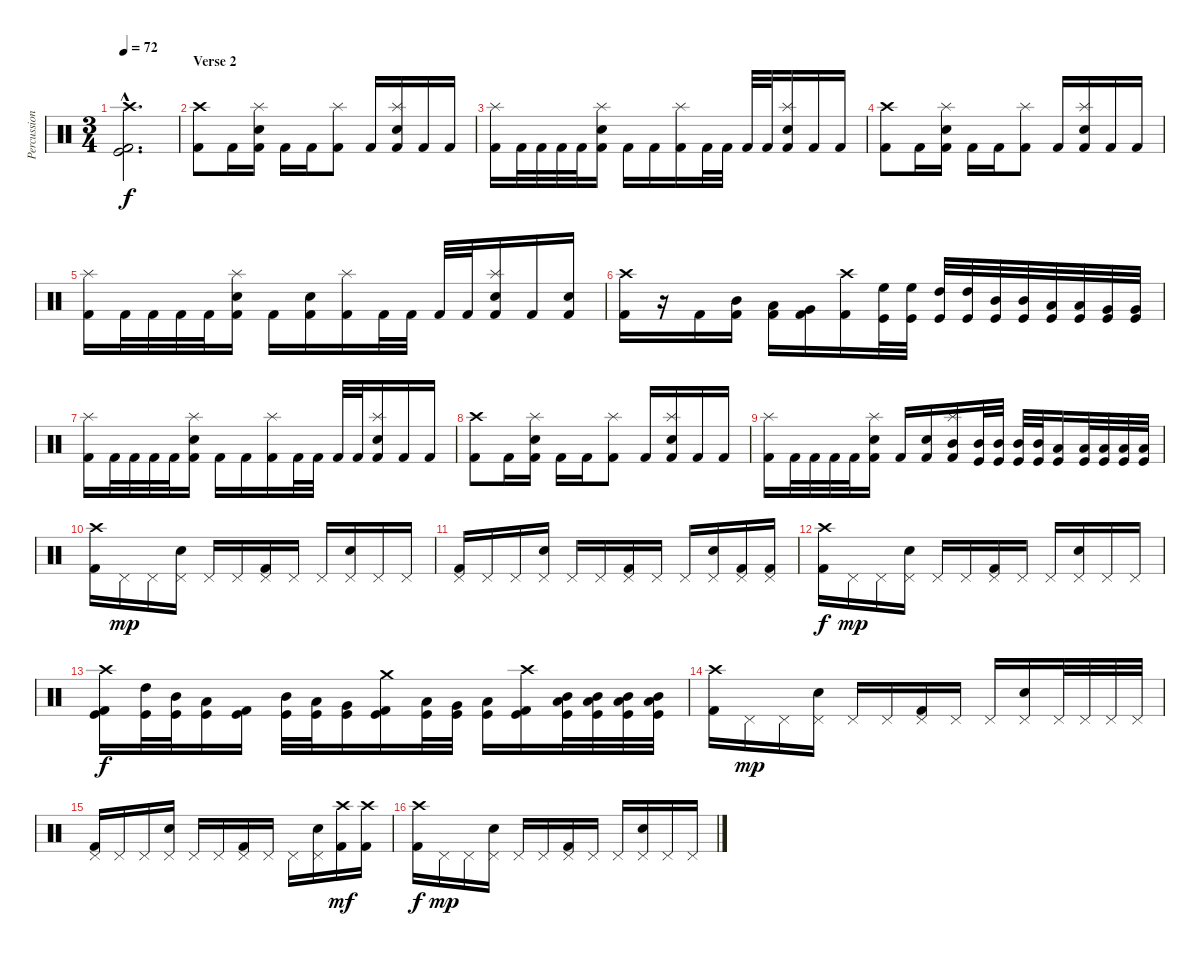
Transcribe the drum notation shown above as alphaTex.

\track ("Percussion" "Percussion") {instrument percussion}
\staff {score}
\articulation defaults
\ts (3 4)
\tempo 72
\clef neutral
\ks c
("Crash high (hit)"{hac} "Kick (hit) 2"{hac} "Kick (hit)"{hac}).2{d dy f} |
\section ("" "Verse 2")
("Crash high (hit)" "Kick (hit) 2").8 "Kick (hit) 2".16 ("Splash (hit)" "Electric Snare (hit)" "Kick (hit) 2").16 "Kick (hit) 2".16 "Kick (hit) 2".16 ("Splash (hit)" "Kick (hit) 2").8 "Kick (hit) 2".16 ("Splash (hit)" "Electric Snare (hit)" "Kick (hit) 2").16 "Kick (hit) 2".16 "Kick (hit) 2".16 |
("Splash (hit)" "Kick (hit) 2").16 "Kick (hit) 2".32 "Kick (hit) 2".32 "Kick (hit) 2".32 "Kick (hit) 2".32 ("Splash (hit)" "Electric Snare (hit)" "Kick (hit) 2").16 "Kick (hit) 2".16 "Kick (hit) 2".16 ("Splash (hit)" "Kick (hit) 2").16 "Kick (hit) 2".32 "Kick (hit) 2".32 "Kick (hit) 2".32 "Kick (hit) 2".32 ("Splash (hit)" "Electric Snare (hit)" "Kick (hit) 2").16 "Kick (hit) 2".16 "Kick (hit) 2".16 |
("Crash high (hit)" "Kick (hit) 2").8 "Kick (hit) 2".16 ("Splash (hit)" "Electric Snare (hit)" "Kick (hit) 2").16 "Kick (hit) 2".16 "Kick (hit) 2".16 ("Splash (hit)" "Kick (hit) 2").8 "Kick (hit) 2".16 ("Splash (hit)" "Electric Snare (hit)" "Kick (hit) 2").16 "Kick (hit) 2".16 "Kick (hit) 2".16 |
("Splash (hit)" "Kick (hit) 2").16 "Kick (hit) 2".32 "Kick (hit) 2".32 "Kick (hit) 2".32 "Kick (hit) 2".32 ("Splash (hit)" "Electric Snare (hit)" "Kick (hit) 2").16 "Kick (hit) 2".16 ("Electric Snare (hit)" "Kick (hit) 2").16 ("Splash (hit)" "Kick (hit) 2").16 "Kick (hit) 2".32 "Kick (hit) 2".32 "Kick (hit) 2".32 "Kick (hit) 2".32 ("Splash (hit)" "Electric Snare (hit)" "Kick (hit) 2").16 "Kick (hit) 2".16 ("Electric Snare (hit)" "Kick (hit) 2").16 |
("Crash high (hit)" "Kick (hit) 2").16 r.16 "Kick (hit) 2".16 ("Mid Tom (hit)" "Kick (hit) 2").16 ("Low Tom (hit)" "Kick (hit) 2").16 ("Very Low Tom (hit)" "Kick (hit) 2").16 ("Crash high (hit)" "Kick (hit) 2").16 ("High Floor Tom (hit)" "Kick (hit)").32 ("High Floor Tom (hit)" "Kick (hit)").32 ("High Tom (hit)" "Kick (hit)").32 ("High Tom (hit)" "Kick (hit)").32 ("Mid Tom (hit)" "Kick (hit)").32 ("Mid Tom (hit)" "Kick (hit)").32 ("Low Tom (hit)" "Kick (hit)").32 ("Low Tom (hit)" "Kick (hit)").32 ("Very Low Tom (hit)" "Kick (hit)").32 ("Very Low Tom (hit)" "Kick (hit)").32 |
("Splash (hit)" "Kick (hit) 2").16 "Kick (hit) 2".32 "Kick (hit) 2".32 "Kick (hit) 2".32 "Kick (hit) 2".32 ("Splash (hit)" "Electric Snare (hit)" "Kick (hit) 2").16 "Kick (hit) 2".16 "Kick (hit) 2".16 ("Splash (hit)" "Kick (hit) 2").16 "Kick (hit) 2".32 "Kick (hit) 2".32 "Kick (hit) 2".32 "Kick (hit) 2".32 ("Splash (hit)" "Electric Snare (hit)" "Kick (hit) 2").16 "Kick (hit) 2".16 "Kick (hit) 2".16 |
("Crash high (hit)" "Kick (hit) 2").8 "Kick (hit) 2".16 ("Splash (hit)" "Electric Snare (hit)" "Kick (hit) 2").16 "Kick (hit) 2".16 "Kick (hit) 2".16 ("Splash (hit)" "Kick (hit) 2").8 "Kick (hit) 2".16 ("Splash (hit)" "Electric Snare (hit)" "Kick (hit) 2").16 "Kick (hit) 2".16 "Kick (hit) 2".16 |
("Splash (hit)" "Kick (hit) 2").16 "Kick (hit) 2".32 "Kick (hit) 2".32 "Kick (hit) 2".32 "Kick (hit) 2".32 ("Splash (hit)" "Electric Snare (hit)" "Kick (hit) 2").16 "Kick (hit) 2".16 ("Electric Snare (hit)" "Kick (hit) 2").16 ("Splash (hit)" "Mid Tom (hit)" "Kick (hit) 2").16 ("Mid Tom (hit)" "Kick (hit)").32 ("Mid Tom (hit)" "Kick (hit)").32 ("Mid Tom (hit)" "Kick (hit)").32 ("Mid Tom (hit)" "Kick (hit)").32 ("Low Tom (hit)" "Kick (hit)").16 ("Low Tom (hit)" "Kick (hit)").32 ("Low Tom (hit)" "Kick (hit)").32 ("Low Tom (hit)" "Kick (hit)").32 ("Low Tom (hit)" "Kick (hit)").32 |
("Crash high (hit)" "Kick (hit) 2").16 "Pedal Hi-Hat (hit)".16{dy mp} "Pedal Hi-Hat (hit)".16 ("Pedal Hi-Hat (hit)" "Electric Snare (hit)").16 "Pedal Hi-Hat (hit)".16 "Pedal Hi-Hat (hit)".16 ("Pedal Hi-Hat (hit)" "Kick (hit) 2").16 "Pedal Hi-Hat (hit)".16 "Pedal Hi-Hat (hit)".16 ("Pedal Hi-Hat (hit)" "Electric Snare (hit)").16 "Pedal Hi-Hat (hit)".16 "Pedal Hi-Hat (hit)".16 |
("Pedal Hi-Hat (hit)" "Kick (hit) 2").16 "Pedal Hi-Hat (hit)".16 "Pedal Hi-Hat (hit)".16 ("Pedal Hi-Hat (hit)" "Electric Snare (hit)").16 "Pedal Hi-Hat (hit)".16 "Pedal Hi-Hat (hit)".16 ("Pedal Hi-Hat (hit)" "Kick (hit) 2").16 "Pedal Hi-Hat (hit)".16 "Pedal Hi-Hat (hit)".16 ("Pedal Hi-Hat (hit)" "Electric Snare (hit)").16 ("Pedal Hi-Hat (hit)" "Kick (hit) 2").16 ("Pedal Hi-Hat (hit)" "Kick (hit) 2").16 |
("Crash high (hit)" "Kick (hit) 2").16{dy f} "Pedal Hi-Hat (hit)".16{dy mp} "Pedal Hi-Hat (hit)".16 ("Pedal Hi-Hat (hit)" "Electric Snare (hit)").16 "Pedal Hi-Hat (hit)".16 "Pedal Hi-Hat (hit)".16 ("Pedal Hi-Hat (hit)" "Kick (hit) 2").16 "Pedal Hi-Hat (hit)".16 "Pedal Hi-Hat (hit)".16 ("Pedal Hi-Hat (hit)" "Electric Snare (hit)").16 "Pedal Hi-Hat (hit)".16 "Pedal Hi-Hat (hit)".16 |
("Crash high (hit)" "Kick (hit) 2" "Kick (hit)").16{dy f} ("High Tom (hit)" "Kick (hit)").32 ("Mid Tom (hit)" "Kick (hit)").32 ("Low Tom (hit)" "Kick (hit)").16 ("Kick (hit) 2" "Kick (hit)").16 ("Mid Tom (hit)" "Kick (hit)").32 ("Low Tom (hit)" "Kick (hit)").32 ("Very Low Tom (hit)" "Kick (hit)").16 ("Crash medium (hit)" "Kick (hit) 2" "Kick (hit)").16 ("Low Tom (hit)" "Kick (hit)").32 ("Very Low Tom (hit)" "Kick (hit)").32 ("Low Floor Tom (hit)" "Kick (hit)").16 ("Crash high (hit)" "Kick (hit) 2" "Kick (hit)").16 ("Mid Tom (hit)" "Low Tom (hit)" "Kick (hit)").32 ("Mid Tom (hit)" "Low Tom (hit)" "Kick (hit)").32 ("Mid Tom (hit)" "Low Tom (hit)" "Kick (hit)").32 ("Mid Tom (hit)" "Low Tom (hit)" "Kick (hit)").32 |
("Crash high (hit)" "Kick (hit) 2").16 "Pedal Hi-Hat (hit)".16{dy mp} "Pedal Hi-Hat (hit)".16 ("Pedal Hi-Hat (hit)" "Electric Snare (hit)").16 "Pedal Hi-Hat (hit)".16 "Pedal Hi-Hat (hit)".16 ("Pedal Hi-Hat (hit)" "Kick (hit) 2").16 "Pedal Hi-Hat (hit)".16 "Pedal Hi-Hat (hit)".16 ("Pedal Hi-Hat (hit)" "Electric Snare (hit)").16 "Pedal Hi-Hat (hit)".32 "Pedal Hi-Hat (hit)".32 "Pedal Hi-Hat (hit)".32 "Pedal Hi-Hat (hit)".32 |
("Pedal Hi-Hat (hit)" "Kick (hit) 2").16 "Pedal Hi-Hat (hit)".16 "Pedal Hi-Hat (hit)".16 ("Pedal Hi-Hat (hit)" "Electric Snare (hit)").16 "Pedal Hi-Hat (hit)".16 "Pedal Hi-Hat (hit)".16 ("Pedal Hi-Hat (hit)" "Kick (hit) 2").16 "Pedal Hi-Hat (hit)".16 "Pedal Hi-Hat (hit)".16 ("Pedal Hi-Hat (hit)" "Electric Snare (hit)").16 ("Crash high (hit)" "Kick (hit) 2").16{dy mf} ("Crash high (hit)" "Kick (hit) 2").16 |
("Crash high (hit)" "Kick (hit) 2").16{dy f} "Pedal Hi-Hat (hit)".16{dy mp} "Pedal Hi-Hat (hit)".16 ("Pedal Hi-Hat (hit)" "Electric Snare (hit)").16 "Pedal Hi-Hat (hit)".16 "Pedal Hi-Hat (hit)".16 ("Pedal Hi-Hat (hit)" "Kick (hit) 2").16 "Pedal Hi-Hat (hit)".16 "Pedal Hi-Hat (hit)".16 ("Pedal Hi-Hat (hit)" "Electric Snare (hit)").16 "Pedal Hi-Hat (hit)".16 "Pedal Hi-Hat (hit)".16
